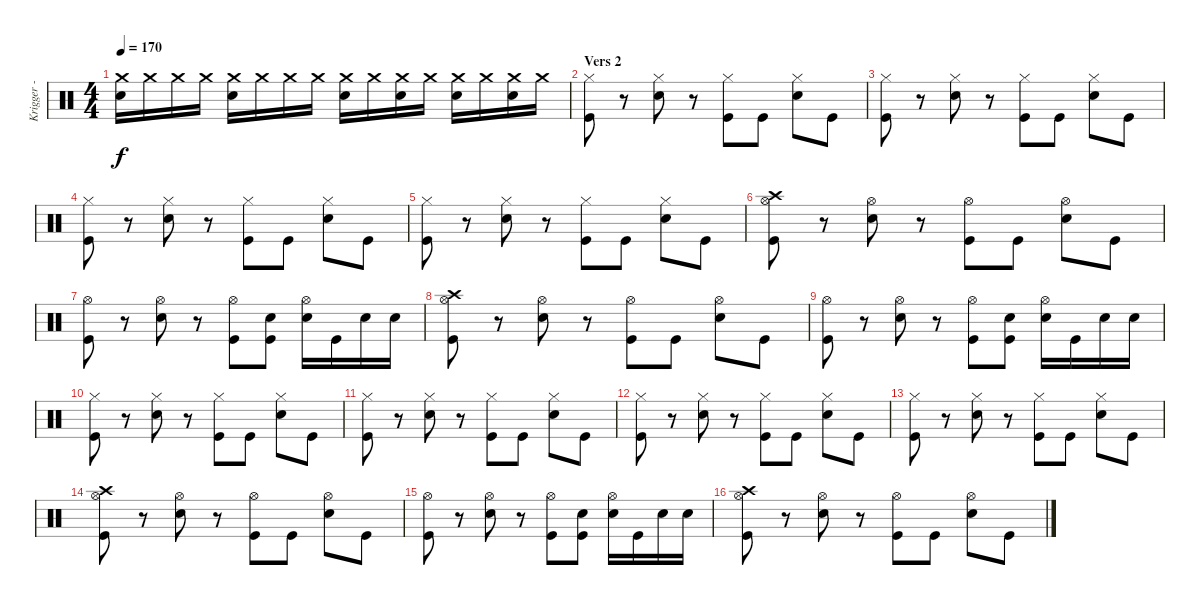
\track ("Krigger - Drums" "Krigger - ") {instrument percussion}
\staff {score}
\articulation defaults
\ts (4 4)
\tempo 170
\clef neutral
\ks c
("Crash medium (hit)" "Snare (hit) 2").16{dy f} "Crash medium (hit)".16 "Crash medium (hit)".16 "Crash medium (hit)".16 ("Crash medium (hit)" "Snare (hit) 2").16 "Crash medium (hit)".16 "Crash medium (hit)".16 "Crash medium (hit)".16 ("Crash medium (hit)" "Snare (hit) 2").16 "Crash medium (hit)".16 ("Crash medium (hit)" "Snare (hit) 2").16 "Crash medium (hit)".16 ("Crash medium (hit)" "Snare (hit) 2").16 "Crash medium (hit)".16 ("Crash medium (hit)" "Snare (hit) 2").16 "Crash medium (hit)".16 |
\section ("" "Vers 2")
("Hi-Hat (closed)" "Kick (hit)").8 r.8 ("Hi-Hat (closed)" "Snare (hit) 2").8 r.8 ("Hi-Hat (closed)" "Kick (hit)").8 "Kick (hit)".8 ("Hi-Hat (closed)" "Snare (hit) 2").8 "Kick (hit)".8 |
("Hi-Hat (closed)" "Kick (hit)").8 r.8 ("Hi-Hat (closed)" "Snare (hit) 2").8 r.8 ("Hi-Hat (closed)" "Kick (hit)").8 "Kick (hit)".8 ("Hi-Hat (closed)" "Snare (hit) 2").8 "Kick (hit)".8 |
("Hi-Hat (closed)" "Kick (hit)").8 r.8 ("Hi-Hat (closed)" "Snare (hit) 2").8 r.8 ("Hi-Hat (closed)" "Kick (hit)").8 "Kick (hit)".8 ("Hi-Hat (closed)" "Snare (hit) 2").8 "Kick (hit)".8 |
("Hi-Hat (closed)" "Kick (hit)").8 r.8 ("Hi-Hat (closed)" "Snare (hit) 2").8 r.8 ("Hi-Hat (closed)" "Kick (hit)").8 "Kick (hit)".8 ("Hi-Hat (closed)" "Snare (hit) 2").8 "Kick (hit)".8 |
("Hi-Hat (open)" "Crash high (hit)" "Kick (hit)").8 r.8 ("Hi-Hat (open)" "Snare (hit) 2").8 r.8 ("Hi-Hat (open)" "Kick (hit)").8 "Kick (hit)".8 ("Hi-Hat (open)" "Snare (hit) 2").8 "Kick (hit)".8 |
("Hi-Hat (open)" "Kick (hit)").8 r.8 ("Hi-Hat (open)" "Snare (hit) 2").8 r.8 ("Hi-Hat (open)" "Kick (hit)").8 ("Snare (hit) 2" "Kick (hit)").8 ("Hi-Hat (open)" "Snare (hit) 2").16 "Kick (hit)".16 "Snare (hit) 2".16 "Snare (hit) 2".16 |
("Hi-Hat (open)" "Crash high (hit)" "Kick (hit)").8 r.8 ("Hi-Hat (open)" "Snare (hit) 2").8 r.8 ("Hi-Hat (open)" "Kick (hit)").8 "Kick (hit)".8 ("Hi-Hat (open)" "Snare (hit) 2").8 "Kick (hit)".8 |
("Hi-Hat (open)" "Kick (hit)").8 r.8 ("Hi-Hat (open)" "Snare (hit) 2").8 r.8 ("Hi-Hat (open)" "Kick (hit)").8 ("Snare (hit) 2" "Kick (hit)").8 ("Hi-Hat (open)" "Snare (hit) 2").16 "Kick (hit)".16 "Snare (hit) 2".16 "Snare (hit) 2".16 |
("Hi-Hat (closed)" "Kick (hit)").8 r.8 ("Hi-Hat (closed)" "Snare (hit) 2").8 r.8 ("Hi-Hat (closed)" "Kick (hit)").8 "Kick (hit)".8 ("Hi-Hat (closed)" "Snare (hit) 2").8 "Kick (hit)".8 |
("Hi-Hat (closed)" "Kick (hit)").8 r.8 ("Hi-Hat (closed)" "Snare (hit) 2").8 r.8 ("Hi-Hat (closed)" "Kick (hit)").8 "Kick (hit)".8 ("Hi-Hat (closed)" "Snare (hit) 2").8 "Kick (hit)".8 |
("Hi-Hat (closed)" "Kick (hit)").8 r.8 ("Hi-Hat (closed)" "Snare (hit) 2").8 r.8 ("Hi-Hat (closed)" "Kick (hit)").8 "Kick (hit)".8 ("Hi-Hat (closed)" "Snare (hit) 2").8 "Kick (hit)".8 |
("Hi-Hat (closed)" "Kick (hit)").8 r.8 ("Hi-Hat (closed)" "Snare (hit) 2").8 r.8 ("Hi-Hat (closed)" "Kick (hit)").8 "Kick (hit)".8 ("Hi-Hat (closed)" "Snare (hit) 2").8 "Kick (hit)".8 |
("Hi-Hat (open)" "Crash high (hit)" "Kick (hit)").8 r.8 ("Hi-Hat (open)" "Snare (hit) 2").8 r.8 ("Hi-Hat (open)" "Kick (hit)").8 "Kick (hit)".8 ("Hi-Hat (open)" "Snare (hit) 2").8 "Kick (hit)".8 |
("Hi-Hat (open)" "Kick (hit)").8 r.8 ("Hi-Hat (open)" "Snare (hit) 2").8 r.8 ("Hi-Hat (open)" "Kick (hit)").8 ("Snare (hit) 2" "Kick (hit)").8 ("Hi-Hat (open)" "Snare (hit) 2").16 "Kick (hit)".16 "Snare (hit) 2".16 "Snare (hit) 2".16 |
("Hi-Hat (open)" "Crash high (hit)" "Kick (hit)").8 r.8 ("Hi-Hat (open)" "Snare (hit) 2").8 r.8 ("Hi-Hat (open)" "Kick (hit)").8 "Kick (hit)".8 ("Hi-Hat (open)" "Snare (hit) 2").8 "Kick (hit)".8
